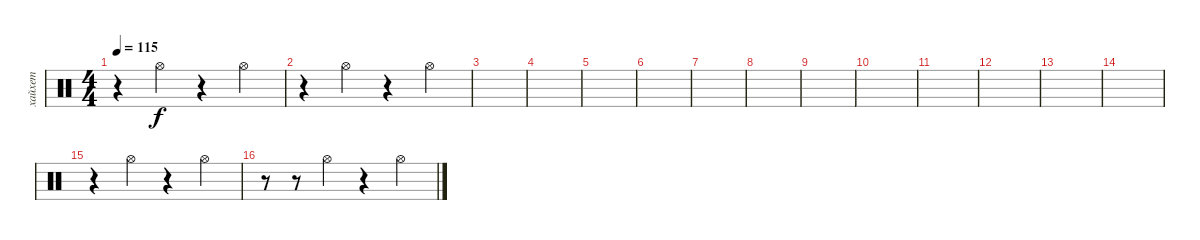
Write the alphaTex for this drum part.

\track ("хайхет" "хайхет") {mute instrument percussion}
\staff {score}
\articulation defaults
\ts (4 4)
\tempo 115
\clef neutral
\ks c
r.4{dy f} "Hi-Hat (open)".4 r.4 "Hi-Hat (open)".4 |
r.4 "Hi-Hat (open)".4 r.4 "Hi-Hat (open)".4 |
|
|
|
|
|
|
|
|
|
|
|
|
r.4 "Hi-Hat (open)".4 r.4 "Hi-Hat (open)".4 |
r.8 r.8 "Hi-Hat (open)".4 r.4 "Hi-Hat (open)".4
